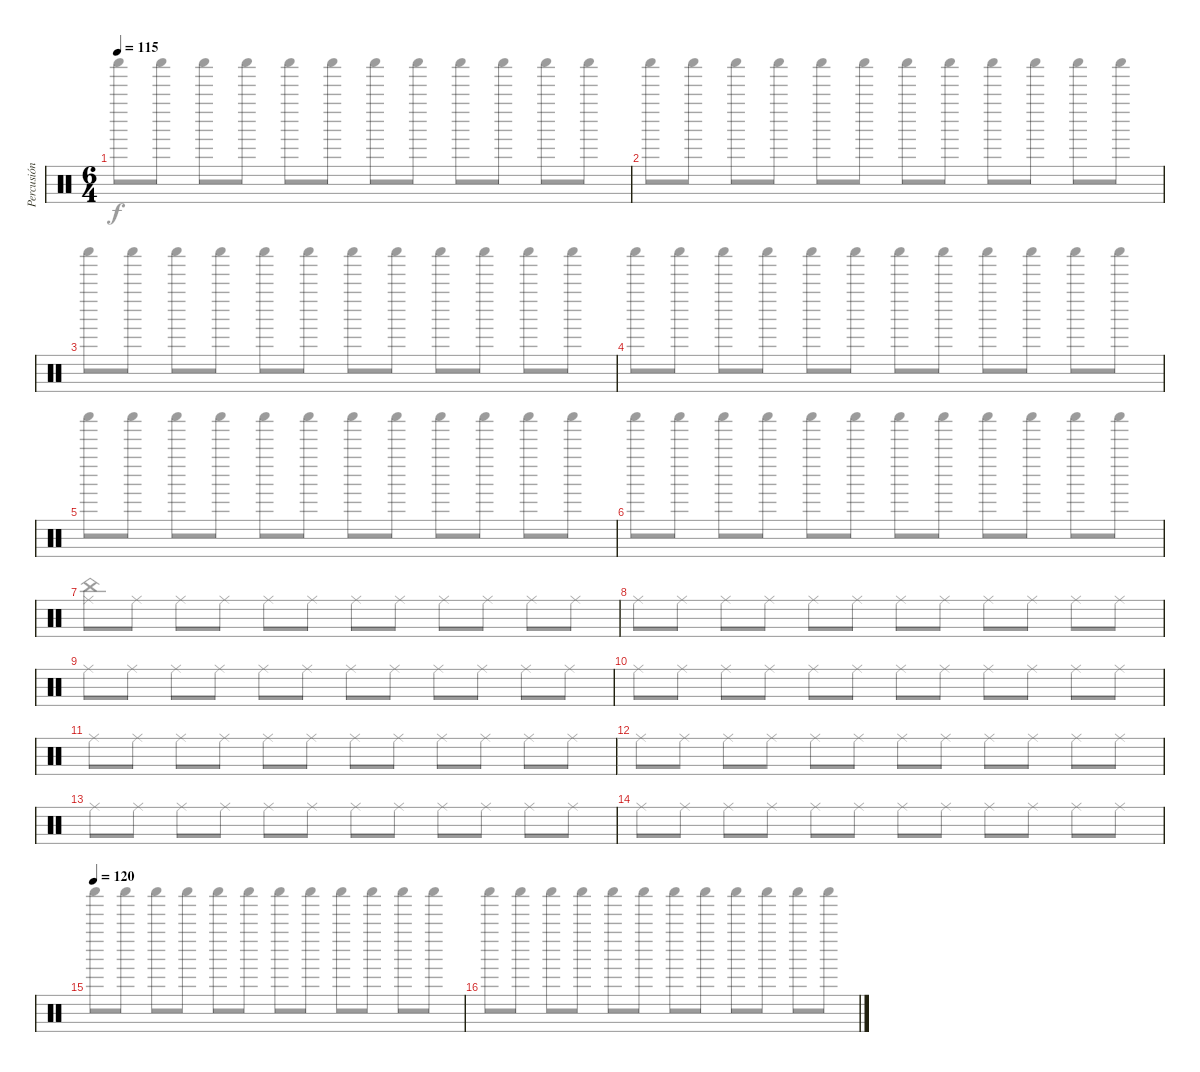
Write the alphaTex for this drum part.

\track ("Percusión" "Percusión") {instrument percussion}
\staff {score}
\articulation defaults
\voice
\ts (6 4)
\tempo 115
\clef neutral
\ks c
|
|
|
|
|
|
|
|
|
|
|
|
|
|
\tempo 120
|
\voice
\clef neutral
\ks c "Shaker (hit)".8{dy f} "Shaker (hit)".8 "Shaker (hit)".8 "Shaker (hit)".8 "Shaker (hit)".8 "Shaker (hit)".8 "Shaker (hit)".8 "Shaker (hit)".8 "Shaker (hit)".8 "Shaker (hit)".8 "Shaker (hit)".8 "Shaker (hit)".8
|
"Shaker (hit)".8 "Shaker (hit)".8 "Shaker (hit)".8 "Shaker (hit)".8 "Shaker (hit)".8 "Shaker (hit)".8 "Shaker (hit)".8 "Shaker (hit)".8 "Shaker (hit)".8 "Shaker (hit)".8 "Shaker (hit)".8 "Shaker (hit)".8 |
"Shaker (hit)".8 "Shaker (hit)".8 "Shaker (hit)".8 "Shaker (hit)".8 "Shaker (hit)".8 "Shaker (hit)".8 "Shaker (hit)".8 "Shaker (hit)".8 "Shaker (hit)".8 "Shaker (hit)".8 "Shaker (hit)".8 "Shaker (hit)".8 |
"Shaker (hit)".8 "Shaker (hit)".8 "Shaker (hit)".8 "Shaker (hit)".8 "Shaker (hit)".8 "Shaker (hit)".8 "Shaker (hit)".8 "Shaker (hit)".8 "Shaker (hit)".8 "Shaker (hit)".8 "Shaker (hit)".8 "Shaker (hit)".8 |
"Shaker (hit)".8 "Shaker (hit)".8 "Shaker (hit)".8 "Shaker (hit)".8 "Shaker (hit)".8 "Shaker (hit)".8 "Shaker (hit)".8 "Shaker (hit)".8 "Shaker (hit)".8 "Shaker (hit)".8 "Shaker (hit)".8 "Shaker (hit)".8 |
"Shaker (hit)".8 "Shaker (hit)".8 "Shaker (hit)".8 "Shaker (hit)".8 "Shaker (hit)".8 "Shaker (hit)".8 "Shaker (hit)".8 "Shaker (hit)".8 "Shaker (hit)".8 "Shaker (hit)".8 "Shaker (hit)".8 "Shaker (hit)".8 |
("Ride (middle)" "China (hit)").8 "Ride (middle)".8 "Ride (middle)".8 "Ride (middle)".8 "Ride (middle)".8 "Ride (middle)".8 "Ride (middle)".8 "Ride (middle)".8 "Ride (middle)".8 "Ride (middle)".8 "Ride (middle)".8 "Ride (middle)".8 |
"Ride (middle)".8 "Ride (middle)".8 "Ride (middle)".8 "Ride (middle)".8 "Ride (middle)".8 "Ride (middle)".8 "Ride (middle)".8 "Ride (middle)".8 "Ride (middle)".8 "Ride (middle)".8 "Ride (middle)".8 "Ride (middle)".8 |
"Ride (middle)".8 "Ride (middle)".8 "Ride (middle)".8 "Ride (middle)".8 "Ride (middle)".8 "Ride (middle)".8 "Ride (middle)".8 "Ride (middle)".8 "Ride (middle)".8 "Ride (middle)".8 "Ride (middle)".8 "Ride (middle)".8 |
"Ride (middle)".8 "Ride (middle)".8 "Ride (middle)".8 "Ride (middle)".8 "Ride (middle)".8 "Ride (middle)".8 "Ride (middle)".8 "Ride (middle)".8 "Ride (middle)".8 "Ride (middle)".8 "Ride (middle)".8 "Ride (middle)".8 |
"Ride (middle)".8 "Ride (middle)".8 "Ride (middle)".8 "Ride (middle)".8 "Ride (middle)".8 "Ride (middle)".8 "Ride (middle)".8 "Ride (middle)".8 "Ride (middle)".8 "Ride (middle)".8 "Ride (middle)".8 "Ride (middle)".8 |
"Ride (middle)".8 "Ride (middle)".8 "Ride (middle)".8 "Ride (middle)".8 "Ride (middle)".8 "Ride (middle)".8 "Ride (middle)".8 "Ride (middle)".8 "Ride (middle)".8 "Ride (middle)".8 "Ride (middle)".8 "Ride (middle)".8 |
"Ride (middle)".8 "Ride (middle)".8 "Ride (middle)".8 "Ride (middle)".8 "Ride (middle)".8 "Ride (middle)".8 "Ride (middle)".8 "Ride (middle)".8 "Ride (middle)".8 "Ride (middle)".8 "Ride (middle)".8 "Ride (middle)".8 |
"Ride (middle)".8 "Ride (middle)".8 "Ride (middle)".8 "Ride (middle)".8 "Ride (middle)".8 "Ride (middle)".8 "Ride (middle)".8 "Ride (middle)".8 "Ride (middle)".8 "Ride (middle)".8 "Ride (middle)".8 "Ride (middle)".8 |
"Shaker (hit)".8 "Shaker (hit)".8 "Shaker (hit)".8 "Shaker (hit)".8 "Shaker (hit)".8 "Shaker (hit)".8 "Shaker (hit)".8 "Shaker (hit)".8 "Shaker (hit)".8 "Shaker (hit)".8 "Shaker (hit)".8 "Shaker (hit)".8 |
"Shaker (hit)".8 "Shaker (hit)".8 "Shaker (hit)".8 "Shaker (hit)".8 "Shaker (hit)".8 "Shaker (hit)".8 "Shaker (hit)".8 "Shaker (hit)".8 "Shaker (hit)".8 "Shaker (hit)".8 "Shaker (hit)".8 "Shaker (hit)".8
